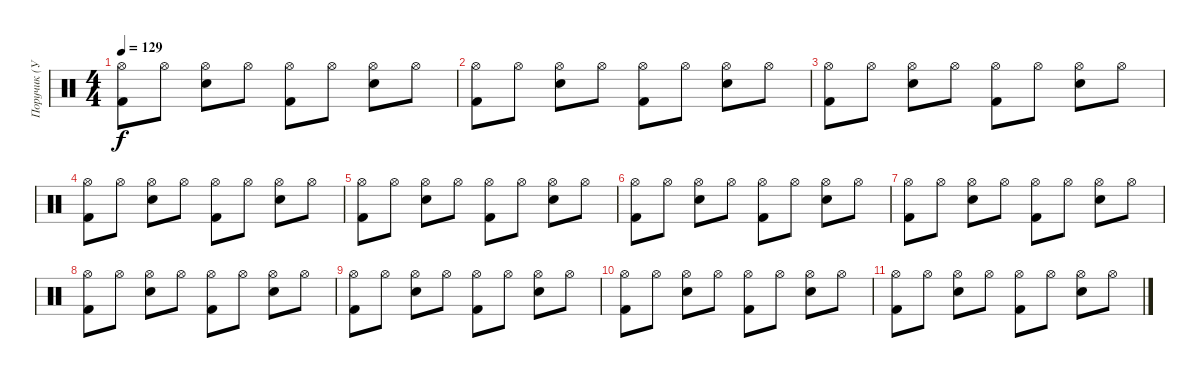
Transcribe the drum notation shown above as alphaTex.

\track ("Поручик (Ударные)" "Поручик (У") {instrument percussion}
\staff {score}
\articulation defaults
\ts (4 4)
\tempo 129
\clef neutral
\ks c
("Hi-Hat (open)" "Kick (hit) 2").8{dy f} "Hi-Hat (open)".8 ("Hi-Hat (open)" "Snare (hit) 2").8 "Hi-Hat (open)".8 ("Hi-Hat (open)" "Kick (hit) 2").8 "Hi-Hat (open)".8 ("Hi-Hat (open)" "Snare (hit) 2").8 "Hi-Hat (open)".8 |
("Hi-Hat (open)" "Kick (hit) 2").8 "Hi-Hat (open)".8 ("Hi-Hat (open)" "Snare (hit) 2").8 "Hi-Hat (open)".8 ("Hi-Hat (open)" "Kick (hit) 2").8 "Hi-Hat (open)".8 ("Hi-Hat (open)" "Snare (hit) 2").8 "Hi-Hat (open)".8 |
("Hi-Hat (open)" "Kick (hit) 2").8 "Hi-Hat (open)".8 ("Hi-Hat (open)" "Snare (hit) 2").8 "Hi-Hat (open)".8 ("Hi-Hat (open)" "Kick (hit) 2").8 "Hi-Hat (open)".8 ("Hi-Hat (open)" "Snare (hit) 2").8 "Hi-Hat (open)".8 |
("Hi-Hat (open)" "Kick (hit) 2").8 "Hi-Hat (open)".8 ("Hi-Hat (open)" "Snare (hit) 2").8 "Hi-Hat (open)".8 ("Hi-Hat (open)" "Kick (hit) 2").8 "Hi-Hat (open)".8 ("Hi-Hat (open)" "Snare (hit) 2").8 "Hi-Hat (open)".8 |
("Hi-Hat (open)" "Kick (hit) 2").8 "Hi-Hat (open)".8 ("Hi-Hat (open)" "Snare (hit) 2").8 "Hi-Hat (open)".8 ("Hi-Hat (open)" "Kick (hit) 2").8 "Hi-Hat (open)".8 ("Hi-Hat (open)" "Snare (hit) 2").8 "Hi-Hat (open)".8 |
("Hi-Hat (open)" "Kick (hit) 2").8 "Hi-Hat (open)".8 ("Hi-Hat (open)" "Snare (hit) 2").8 "Hi-Hat (open)".8 ("Hi-Hat (open)" "Kick (hit) 2").8 "Hi-Hat (open)".8 ("Hi-Hat (open)" "Snare (hit) 2").8 "Hi-Hat (open)".8 |
("Hi-Hat (open)" "Kick (hit) 2").8 "Hi-Hat (open)".8 ("Hi-Hat (open)" "Snare (hit) 2").8 "Hi-Hat (open)".8 ("Hi-Hat (open)" "Kick (hit) 2").8 "Hi-Hat (open)".8 ("Hi-Hat (open)" "Snare (hit) 2").8 "Hi-Hat (open)".8 |
("Hi-Hat (open)" "Kick (hit) 2").8 "Hi-Hat (open)".8 ("Hi-Hat (open)" "Snare (hit) 2").8 "Hi-Hat (open)".8 ("Hi-Hat (open)" "Kick (hit) 2").8 "Hi-Hat (open)".8 ("Hi-Hat (open)" "Snare (hit) 2").8 "Hi-Hat (open)".8 |
("Hi-Hat (open)" "Kick (hit) 2").8 "Hi-Hat (open)".8 ("Hi-Hat (open)" "Snare (hit) 2").8 "Hi-Hat (open)".8 ("Hi-Hat (open)" "Kick (hit) 2").8 "Hi-Hat (open)".8 ("Hi-Hat (open)" "Snare (hit) 2").8 "Hi-Hat (open)".8 |
("Hi-Hat (open)" "Kick (hit) 2").8 "Hi-Hat (open)".8 ("Hi-Hat (open)" "Snare (hit) 2").8 "Hi-Hat (open)".8 ("Hi-Hat (open)" "Kick (hit) 2").8 "Hi-Hat (open)".8 ("Hi-Hat (open)" "Snare (hit) 2").8 "Hi-Hat (open)".8 |
("Hi-Hat (open)" "Kick (hit) 2").8 "Hi-Hat (open)".8 ("Hi-Hat (open)" "Snare (hit) 2").8 "Hi-Hat (open)".8 ("Hi-Hat (open)" "Kick (hit) 2").8 "Hi-Hat (open)".8 ("Hi-Hat (open)" "Snare (hit) 2").8 "Hi-Hat (open)".8
